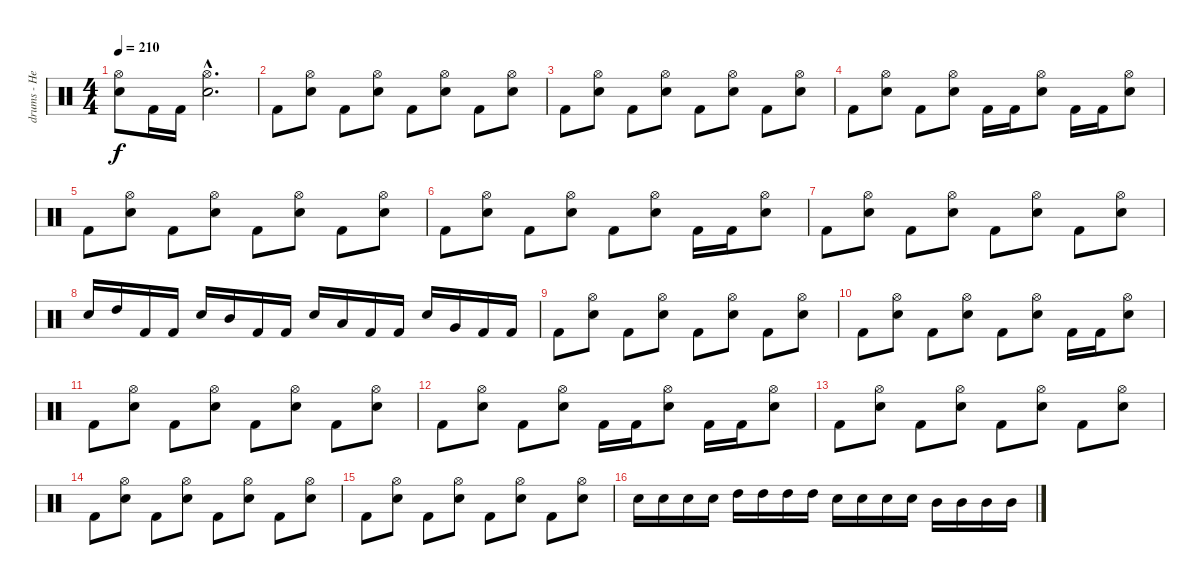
\track ("drums - Heikki" "drums - He") {instrument percussion}
\staff {score}
\articulation defaults
\ts (4 4)
\tempo 210
\clef neutral
\ks c
("Hi-Hat (open)" "Snare (hit) 2").8{dy f} "Kick (hit) 2".16 "Kick (hit) 2".16 ("Hi-Hat (open)"{hac} "Snare (hit) 2"{hac}).2{d} |
"Kick (hit) 2".8 ("Hi-Hat (open)" "Snare (hit) 2").8 "Kick (hit) 2".8 ("Hi-Hat (open)" "Snare (hit) 2").8 "Kick (hit) 2".8 ("Hi-Hat (open)" "Snare (hit) 2").8 "Kick (hit) 2".8 ("Hi-Hat (open)" "Snare (hit) 2").8 |
"Kick (hit) 2".8 ("Hi-Hat (open)" "Snare (hit) 2").8 "Kick (hit) 2".8 ("Hi-Hat (open)" "Snare (hit) 2").8 "Kick (hit) 2".8 ("Hi-Hat (open)" "Snare (hit) 2").8 "Kick (hit) 2".8 ("Hi-Hat (open)" "Snare (hit) 2").8 |
"Kick (hit) 2".8 ("Hi-Hat (open)" "Snare (hit) 2").8 "Kick (hit) 2".8 ("Hi-Hat (open)" "Snare (hit) 2").8 "Kick (hit) 2".16 "Kick (hit) 2".16 ("Hi-Hat (open)" "Snare (hit) 2").8 "Kick (hit) 2".16 "Kick (hit) 2".16 ("Hi-Hat (open)" "Snare (hit) 2").8 |
"Kick (hit) 2".8 ("Hi-Hat (open)" "Snare (hit) 2").8 "Kick (hit) 2".8 ("Hi-Hat (open)" "Snare (hit) 2").8 "Kick (hit) 2".8 ("Hi-Hat (open)" "Snare (hit) 2").8 "Kick (hit) 2".8 ("Hi-Hat (open)" "Snare (hit) 2").8 |
"Kick (hit) 2".8 ("Hi-Hat (open)" "Snare (hit) 2").8 "Kick (hit) 2".8 ("Hi-Hat (open)" "Snare (hit) 2").8 "Kick (hit) 2".8 ("Hi-Hat (open)" "Snare (hit) 2").8 "Kick (hit) 2".16 "Kick (hit) 2".16 ("Hi-Hat (open)" "Snare (hit) 2").8 |
"Kick (hit) 2".8 ("Hi-Hat (open)" "Snare (hit) 2").8 "Kick (hit) 2".8 ("Hi-Hat (open)" "Snare (hit) 2").8 "Kick (hit) 2".8 ("Hi-Hat (open)" "Snare (hit) 2").8 "Kick (hit) 2".8 ("Hi-Hat (open)" "Snare (hit) 2").8 |
"Snare (hit) 2".16 "High Tom (hit)".16 "Kick (hit) 2".16 "Kick (hit) 2".16 "Snare (hit) 2".16 "Mid Tom (hit)".16 "Kick (hit) 2".16 "Kick (hit) 2".16 "Snare (hit) 2".16 "Low Tom (hit)".16 "Kick (hit) 2".16 "Kick (hit) 2".16 "Snare (hit) 2".16 "Very Low Tom (hit)".16 "Kick (hit) 2".16 "Kick (hit) 2".16 |
"Kick (hit) 2".8 ("Hi-Hat (open)" "Snare (hit) 2").8 "Kick (hit) 2".8 ("Hi-Hat (open)" "Snare (hit) 2").8 "Kick (hit) 2".8 ("Hi-Hat (open)" "Snare (hit) 2").8 "Kick (hit) 2".8 ("Hi-Hat (open)" "Snare (hit) 2").8 |
"Kick (hit) 2".8 ("Hi-Hat (open)" "Snare (hit) 2").8 "Kick (hit) 2".8 ("Hi-Hat (open)" "Snare (hit) 2").8 "Kick (hit) 2".8 ("Hi-Hat (open)" "Snare (hit) 2").8 "Kick (hit) 2".16 "Kick (hit) 2".16 ("Hi-Hat (open)" "Snare (hit) 2").8 |
"Kick (hit) 2".8 ("Hi-Hat (open)" "Snare (hit) 2").8 "Kick (hit) 2".8 ("Hi-Hat (open)" "Snare (hit) 2").8 "Kick (hit) 2".8 ("Hi-Hat (open)" "Snare (hit) 2").8 "Kick (hit) 2".8 ("Hi-Hat (open)" "Snare (hit) 2").8 |
"Kick (hit) 2".8 ("Hi-Hat (open)" "Snare (hit) 2").8 "Kick (hit) 2".8 ("Hi-Hat (open)" "Snare (hit) 2").8 "Kick (hit) 2".16 "Kick (hit) 2".16 ("Hi-Hat (open)" "Snare (hit) 2").8 "Kick (hit) 2".16 "Kick (hit) 2".16 ("Hi-Hat (open)" "Snare (hit) 2").8 |
"Kick (hit) 2".8 ("Hi-Hat (open)" "Snare (hit) 2").8 "Kick (hit) 2".8 ("Hi-Hat (open)" "Snare (hit) 2").8 "Kick (hit) 2".8 ("Hi-Hat (open)" "Snare (hit) 2").8 "Kick (hit) 2".8 ("Hi-Hat (open)" "Snare (hit) 2").8 |
"Kick (hit) 2".8 ("Hi-Hat (open)" "Snare (hit) 2").8 "Kick (hit) 2".8 ("Hi-Hat (open)" "Snare (hit) 2").8 "Kick (hit) 2".8 ("Hi-Hat (open)" "Snare (hit) 2").8 "Kick (hit) 2".8 ("Hi-Hat (open)" "Snare (hit) 2").8 |
"Kick (hit) 2".8 ("Hi-Hat (open)" "Snare (hit) 2").8 "Kick (hit) 2".8 ("Hi-Hat (open)" "Snare (hit) 2").8 "Kick (hit) 2".8 ("Hi-Hat (open)" "Snare (hit) 2").8 "Kick (hit) 2".8 ("Hi-Hat (open)" "Snare (hit) 2").8 |
"Snare (hit) 2".16 "Snare (hit) 2".16 "Snare (hit) 2".16 "Snare (hit) 2".16 "High Tom (hit)".16 "High Tom (hit)".16 "High Tom (hit)".16 "High Tom (hit)".16 "Snare (hit) 2".16 "Snare (hit) 2".16 "Snare (hit) 2".16 "Snare (hit) 2".16 "Mid Tom (hit)".16 "Mid Tom (hit)".16 "Mid Tom (hit)".16 "Mid Tom (hit)".16
